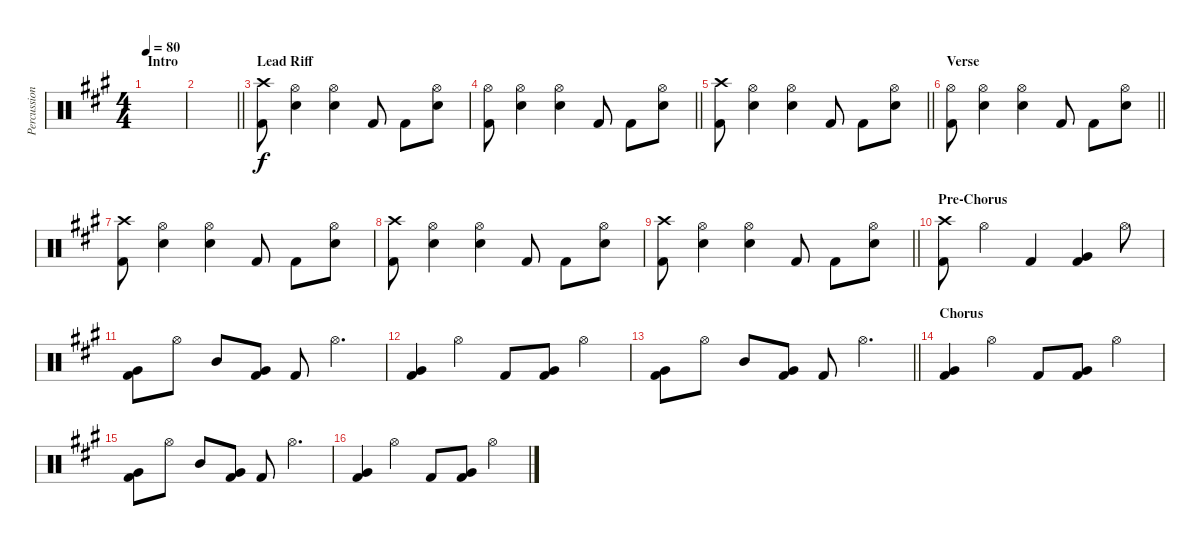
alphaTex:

\track ("Percussion" "Percussion") {instrument percussion}
\staff {score}
\articulation defaults
\ts (4 4)
\section ("" "Intro")
\tempo 80
\clef neutral
\ks a
|
\barLineRight lightlight
|
\section ("" "Lead Riff")
("Crash high (hit)" "Kick (hit) 2").8 ("Hi-Hat (open)" "Snare (hit) 2").4 ("Hi-Hat (open)" "Snare (hit) 2").4 "Kick (hit) 2".8 "Kick (hit) 2".8 ("Hi-Hat (open)" "Snare (hit) 2").8 |
\barLineRight lightlight
("Hi-Hat (open)" "Kick (hit) 2").8 ("Hi-Hat (open)" "Snare (hit) 2").4 ("Hi-Hat (open)" "Snare (hit) 2").4 "Kick (hit) 2".8 "Kick (hit) 2".8 ("Hi-Hat (open)" "Snare (hit) 2").8 |
\barLineRight lightlight
("Crash high (hit)" "Kick (hit) 2").8 ("Hi-Hat (open)" "Snare (hit) 2").4 ("Hi-Hat (open)" "Snare (hit) 2").4 "Kick (hit) 2".8 "Kick (hit) 2".8 ("Hi-Hat (open)" "Snare (hit) 2").8 |
\section ("" "Verse")
\barLineRight lightlight
("Hi-Hat (open)" "Kick (hit) 2").8 ("Hi-Hat (open)" "Snare (hit) 2").4 ("Hi-Hat (open)" "Snare (hit) 2").4 "Kick (hit) 2".8 "Kick (hit) 2".8 ("Hi-Hat (open)" "Snare (hit) 2").8 |
("Crash high (hit)" "Kick (hit) 2").8 ("Hi-Hat (open)" "Snare (hit) 2").4 ("Hi-Hat (open)" "Snare (hit) 2").4 "Kick (hit) 2".8 "Kick (hit) 2".8 ("Hi-Hat (open)" "Snare (hit) 2").8 |
("Crash high (hit)" "Kick (hit) 2").8 ("Hi-Hat (open)" "Snare (hit) 2").4 ("Hi-Hat (open)" "Snare (hit) 2").4 "Kick (hit) 2".8 "Kick (hit) 2".8 ("Hi-Hat (open)" "Snare (hit) 2").8 |
\barLineRight lightlight
("Crash high (hit)" "Kick (hit) 2").8 ("Hi-Hat (open)" "Snare (hit) 2").4 ("Hi-Hat (open)" "Snare (hit) 2").4 "Kick (hit) 2".8 "Kick (hit) 2".8 ("Hi-Hat (open)" "Snare (hit) 2").8 |
\section ("" "Pre-Chorus")
("Crash high (hit)" "Kick (hit) 2").8 "Hi-Hat (open)".4 "Kick (hit) 2".4 ("Very Low Tom (hit)" "Kick (hit) 2").4 "Hi-Hat (open)".8 |
("Very Low Tom (hit)" "Kick (hit) 2").8 "Hi-Hat (open)".8 "Mid Tom (hit)".8 ("Very Low Tom (hit)" "Kick (hit) 2").8 "Kick (hit) 2".8 "Hi-Hat (open)".4{d} |
("Very Low Tom (hit)" "Kick (hit) 2").4 "Hi-Hat (open)".4 "Kick (hit) 2".8 ("Very Low Tom (hit)" "Kick (hit) 2").8 "Hi-Hat (open)".4 |
\barLineRight lightlight
("Very Low Tom (hit)" "Kick (hit) 2").8 "Hi-Hat (open)".8 "Mid Tom (hit)".8 ("Very Low Tom (hit)" "Kick (hit) 2").8 "Kick (hit) 2".8 "Hi-Hat (open)".4{d} |
\section ("" "Chorus")
("Very Low Tom (hit)" "Kick (hit) 2").4 "Hi-Hat (open)".4 "Kick (hit) 2".8 ("Very Low Tom (hit)" "Kick (hit) 2").8 "Hi-Hat (open)".4 |
("Very Low Tom (hit)" "Kick (hit) 2").8 "Hi-Hat (open)".8 "Mid Tom (hit)".8 ("Very Low Tom (hit)" "Kick (hit) 2").8 "Kick (hit) 2".8 "Hi-Hat (open)".4{d} |
("Very Low Tom (hit)" "Kick (hit) 2").4 "Hi-Hat (open)".4 "Kick (hit) 2".8 ("Very Low Tom (hit)" "Kick (hit) 2").8 "Hi-Hat (open)".4
